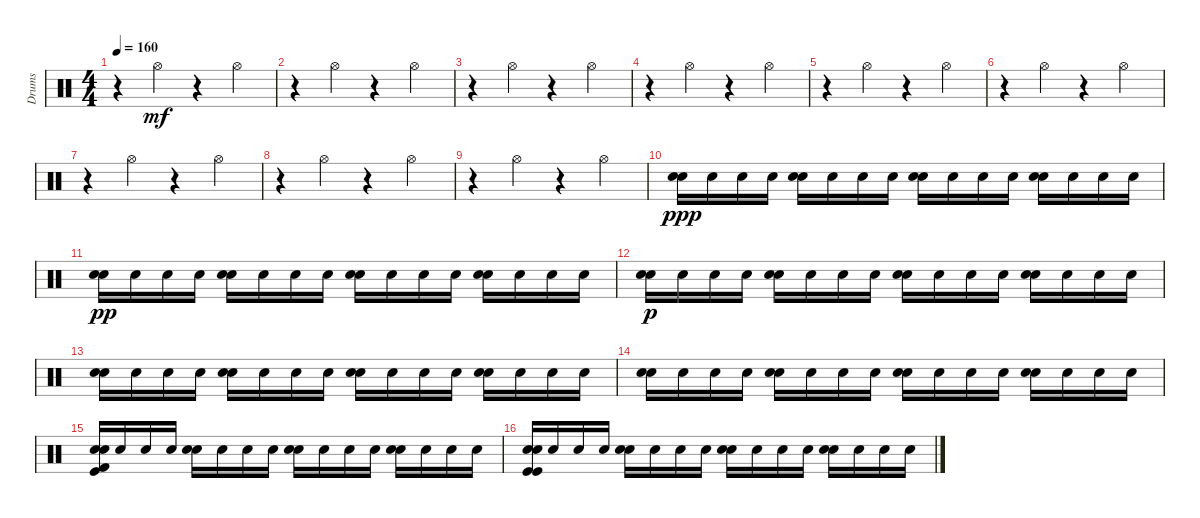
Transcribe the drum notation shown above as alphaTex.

\track ("Drums" "Drums") {instrument percussion}
\staff {score}
\articulation defaults
\ts (4 4)
\tempo 160
\clef neutral
\ks c
r.4{dy mf} "Hi-Hat (open)".4 r.4 "Hi-Hat (open)".4 |
r.4 "Hi-Hat (open)".4 r.4 "Hi-Hat (open)".4 |
r.4 "Hi-Hat (open)".4 r.4 "Hi-Hat (open)".4 |
r.4 "Hi-Hat (open)".4 r.4 "Hi-Hat (open)".4 |
r.4 "Hi-Hat (open)".4 r.4 "Hi-Hat (open)".4 |
r.4 "Hi-Hat (open)".4 r.4 "Hi-Hat (open)".4 |
r.4 "Hi-Hat (open)".4 r.4 "Hi-Hat (open)".4 |
r.4 "Hi-Hat (open)".4 r.4 "Hi-Hat (open)".4 |
r.4 "Hi-Hat (open)".4 r.4 "Hi-Hat (open)".4 |
("Snare (hit) 2" "Electric Snare (hit)").16{dy ppp} "Electric Snare (hit)".16 "Electric Snare (hit)".16 "Electric Snare (hit)".16 ("Snare (hit) 2" "Electric Snare (hit)").16 "Electric Snare (hit)".16 "Electric Snare (hit)".16 "Electric Snare (hit)".16 ("Snare (hit) 2" "Electric Snare (hit)").16 "Electric Snare (hit)".16 "Electric Snare (hit)".16 "Electric Snare (hit)".16 ("Snare (hit) 2" "Electric Snare (hit)").16 "Electric Snare (hit)".16 "Electric Snare (hit)".16 "Electric Snare (hit)".16 |
("Snare (hit) 2" "Electric Snare (hit)").16{dy pp} "Electric Snare (hit)".16 "Electric Snare (hit)".16 "Electric Snare (hit)".16 ("Snare (hit) 2" "Electric Snare (hit)").16 "Electric Snare (hit)".16 "Electric Snare (hit)".16 "Electric Snare (hit)".16 ("Snare (hit) 2" "Electric Snare (hit)").16 "Electric Snare (hit)".16 "Electric Snare (hit)".16 "Electric Snare (hit)".16 ("Snare (hit) 2" "Electric Snare (hit)").16 "Electric Snare (hit)".16 "Electric Snare (hit)".16 "Electric Snare (hit)".16 |
("Snare (hit) 2" "Electric Snare (hit)").16{dy p} "Electric Snare (hit)".16 "Electric Snare (hit)".16 "Electric Snare (hit)".16 ("Snare (hit) 2" "Electric Snare (hit)").16 "Electric Snare (hit)".16 "Electric Snare (hit)".16 "Electric Snare (hit)".16 ("Snare (hit) 2" "Electric Snare (hit)").16 "Electric Snare (hit)".16 "Electric Snare (hit)".16 "Electric Snare (hit)".16 ("Snare (hit) 2" "Electric Snare (hit)").16 "Electric Snare (hit)".16 "Electric Snare (hit)".16 "Electric Snare (hit)".16 |
("Snare (hit) 2" "Electric Snare (hit)").16 "Electric Snare (hit)".16 "Electric Snare (hit)".16 "Electric Snare (hit)".16 ("Snare (hit) 2" "Electric Snare (hit)").16 "Electric Snare (hit)".16 "Electric Snare (hit)".16 "Electric Snare (hit)".16 ("Snare (hit) 2" "Electric Snare (hit)").16 "Electric Snare (hit)".16 "Electric Snare (hit)".16 "Electric Snare (hit)".16 ("Snare (hit) 2" "Electric Snare (hit)").16 "Electric Snare (hit)".16 "Electric Snare (hit)".16 "Electric Snare (hit)".16 |
("Snare (hit) 2" "Electric Snare (hit)").16 "Electric Snare (hit)".16 "Electric Snare (hit)".16 "Electric Snare (hit)".16 ("Snare (hit) 2" "Electric Snare (hit)").16 "Electric Snare (hit)".16 "Electric Snare (hit)".16 "Electric Snare (hit)".16 ("Snare (hit) 2" "Electric Snare (hit)").16 "Electric Snare (hit)".16 "Electric Snare (hit)".16 "Electric Snare (hit)".16 ("Snare (hit) 2" "Electric Snare (hit)").16 "Electric Snare (hit)".16 "Electric Snare (hit)".16 "Electric Snare (hit)".16 |
("Snare (hit) 2" "Electric Snare (hit)" "Kick (hit) 2" "Kick (hit)").16 "Electric Snare (hit)".16 "Electric Snare (hit)".16 "Electric Snare (hit)".16 ("Snare (hit) 2" "Electric Snare (hit)").16 "Electric Snare (hit)".16 "Electric Snare (hit)".16 "Electric Snare (hit)".16 ("Snare (hit) 2" "Electric Snare (hit)").16 "Electric Snare (hit)".16 "Electric Snare (hit)".16 "Electric Snare (hit)".16 ("Snare (hit) 2" "Electric Snare (hit)").16 "Electric Snare (hit)".16 "Electric Snare (hit)".16 "Electric Snare (hit)".16 |
("Snare (hit) 2" "Electric Snare (hit)" "Kick (hit)" "Kick (hit)").16 "Electric Snare (hit)".16 "Electric Snare (hit)".16 "Electric Snare (hit)".16 ("Snare (hit) 2" "Electric Snare (hit)").16 "Electric Snare (hit)".16 "Electric Snare (hit)".16 "Electric Snare (hit)".16 ("Snare (hit) 2" "Electric Snare (hit)").16 "Electric Snare (hit)".16 "Electric Snare (hit)".16 "Electric Snare (hit)".16 ("Snare (hit) 2" "Electric Snare (hit)").16 "Electric Snare (hit)".16 "Electric Snare (hit)".16 "Electric Snare (hit)".16
